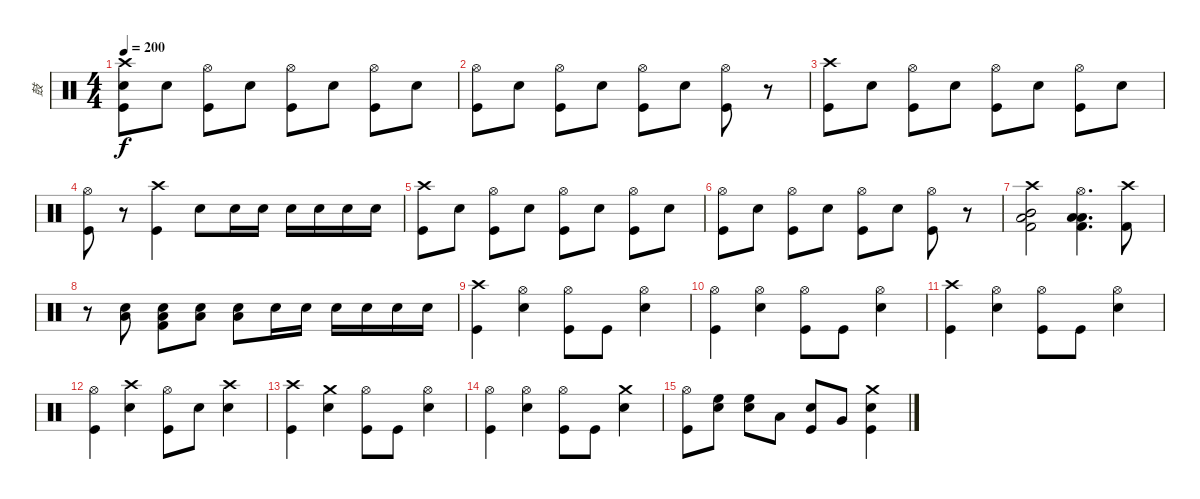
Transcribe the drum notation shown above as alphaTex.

\track ("鼓" "鼓") {instrument percussion}
\staff {score}
\articulation defaults
\ts (4 4)
\tempo 200
\clef neutral
\ks c
("Crash high (hit)" "Snare (hit) 2" "Kick (hit)").8{dy f} "Snare (hit) 2".8 ("Hi-Hat (open)" "Kick (hit)").8 "Snare (hit) 2".8 ("Hi-Hat (open)" "Kick (hit)").8 "Snare (hit) 2".8 ("Hi-Hat (open)" "Kick (hit)").8 "Snare (hit) 2".8 |
("Hi-Hat (open)" "Kick (hit)").8 "Snare (hit) 2".8 ("Hi-Hat (open)" "Kick (hit)").8 "Snare (hit) 2".8 ("Hi-Hat (open)" "Kick (hit)").8 "Snare (hit) 2".8 ("Hi-Hat (open)" "Kick (hit)").8 r.8 |
("Crash high (hit)" "Kick (hit)").8 "Snare (hit) 2".8 ("Hi-Hat (open)" "Kick (hit)").8 "Snare (hit) 2".8 ("Hi-Hat (open)" "Kick (hit)").8 "Snare (hit) 2".8 ("Hi-Hat (open)" "Kick (hit)").8 "Snare (hit) 2".8 |
("Hi-Hat (open)" "Kick (hit)").8 r.8 ("Crash high (hit)" "Kick (hit)").4 "Snare (hit) 2".8 "Snare (hit) 2".16 "Snare (hit) 2".16 "Snare (hit) 2".16 "Snare (hit) 2".16 "Snare (hit) 2".16 "Snare (hit) 2".16 |
("Crash high (hit)" "Kick (hit)").8 "Snare (hit) 2".8 ("Hi-Hat (open)" "Kick (hit)").8 "Snare (hit) 2".8 ("Hi-Hat (open)" "Kick (hit)").8 "Snare (hit) 2".8 ("Hi-Hat (open)" "Kick (hit)").8 "Snare (hit) 2".8 |
("Hi-Hat (open)" "Kick (hit)").8 "Snare (hit) 2".8 ("Hi-Hat (open)" "Kick (hit)").8 "Snare (hit) 2".8 ("Hi-Hat (open)" "Kick (hit)").8 "Snare (hit) 2".8 ("Hi-Hat (open)" "Kick (hit)").8 r.8 |
("Crash high (hit)" "Mid Tom (hit)" "Low Tom (hit)" "Kick (hit) 2").2 ("Hi-Hat (open)" "Low Tom (hit)" "Low Floor Tom (hit)" "Kick (hit) 2").4{d} ("Crash high (hit)" "Kick (hit) 2").8 |
r.8 ("Snare (hit) 2" "Low Floor Tom (hit)").8 ("Snare (hit) 2" "Low Floor Tom (hit)" "Kick (hit) 2").8 ("Snare (hit) 2" "Low Floor Tom (hit)").8 ("Snare (hit) 2" "Low Floor Tom (hit)").8 "Snare (hit) 2".16 "Snare (hit) 2".16 "Snare (hit) 2".16 "Snare (hit) 2".16 "Snare (hit) 2".16 "Snare (hit) 2".16 |
("Crash high (hit)" "Kick (hit)").4 ("Hi-Hat (open)" "Snare (hit) 2").4 ("Hi-Hat (open)" "Kick (hit)").8 "Kick (hit)".8 ("Hi-Hat (open)" "Snare (hit) 2").4 |
("Hi-Hat (open)" "Kick (hit)").4 ("Hi-Hat (open)" "Snare (hit) 2").4 ("Hi-Hat (open)" "Kick (hit)").8 "Kick (hit)".8 ("Hi-Hat (open)" "Snare (hit) 2").4 |
("Crash high (hit)" "Kick (hit)").4 ("Hi-Hat (open)" "Snare (hit) 2").4 ("Hi-Hat (open)" "Kick (hit)").8 "Kick (hit)".8 ("Hi-Hat (open)" "Snare (hit) 2").4 |
("Hi-Hat (open)" "Kick (hit)").4 ("Crash high (hit)" "Snare (hit) 2").4 ("Hi-Hat (open)" "Kick (hit)").8 "Snare (hit) 2".8 ("Crash high (hit)" "Snare (hit) 2").4 |
("Crash high (hit)" "Kick (hit)").4 ("Crash medium (hit)" "Snare (hit) 2").4 ("Hi-Hat (open)" "Kick (hit)").8 "Kick (hit)".8 ("Hi-Hat (open)" "Snare (hit) 2").4 |
("Hi-Hat (open)" "Kick (hit)").4 ("Hi-Hat (open)" "Snare (hit) 2").4 ("Hi-Hat (open)" "Kick (hit)").8 "Kick (hit)".8 ("Crash medium (hit)" "Snare (hit) 2").4 |
("Hi-Hat (open)" "Kick (hit)").8 ("High Floor Tom (hit)" "Snare (hit) 2").8 ("High Floor Tom (hit)" "Snare (hit) 2").8 "Low Tom (hit)".8 ("Snare (hit) 2" "Kick (hit)").8 "Very Low Tom (hit)".8 ("Crash medium (hit)" "Snare (hit) 2" "Kick (hit)").4
